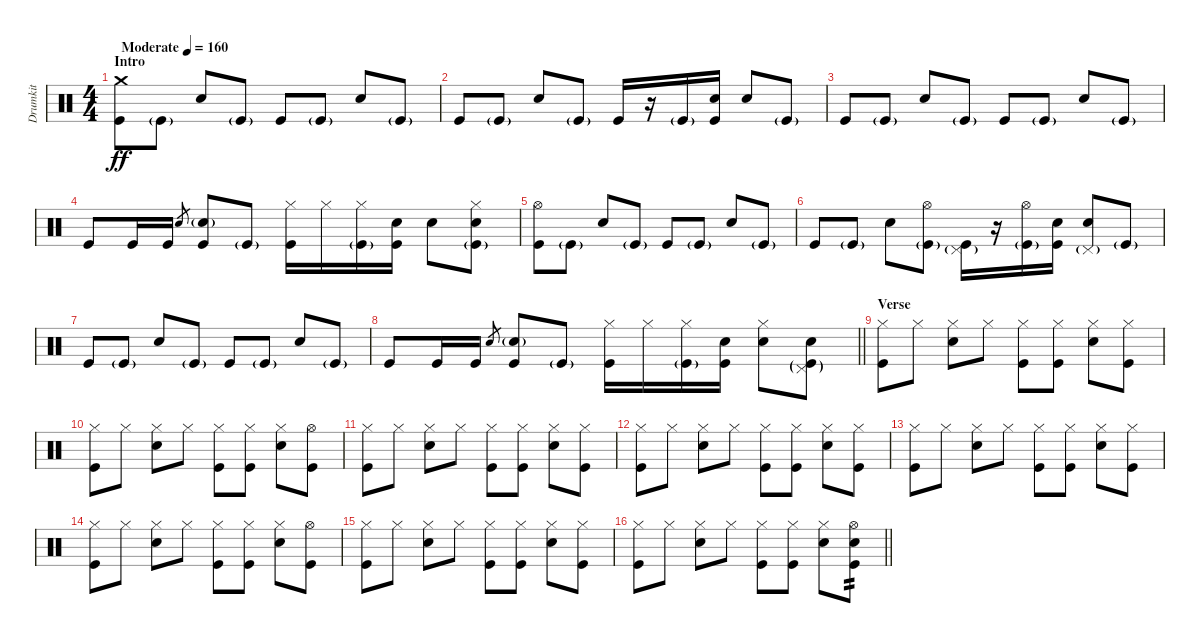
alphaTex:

\track ("Drumkit" "Drumkit") {instrument percussion}
\staff {score}
\articulation defaults
\ts (4 4)
\section ("" "Intro")
\tempo (160 "Moderate")
\clef neutral
\ks c
("Crash medium (hit)" "Kick (hit)").8{dy ff} "Kick (hit)"{g}.8 "Snare (hit) 2".8 "Kick (hit)"{g}.8 "Kick (hit)".8 "Kick (hit)"{g}.8 "Snare (hit) 2".8 "Kick (hit)"{g}.8 |
"Kick (hit)".8 "Kick (hit)"{g}.8 "Snare (hit) 2".8 "Kick (hit)"{g}.8 "Kick (hit)".16 r.16 "Kick (hit)"{g}.16 ("Snare (hit) 2" "Kick (hit)").16 "Snare (hit) 2".8 "Kick (hit)"{g}.8 |
"Kick (hit)".8 "Kick (hit)"{g}.8 "Snare (hit) 2".8 "Kick (hit)"{g}.8 "Kick (hit)".8 "Kick (hit)"{g}.8 "Snare (hit) 2".8 "Kick (hit)"{g}.8 |
"Kick (hit)".8 "Kick (hit)".16 "Kick (hit)".16 "Snare (hit)".8{gr} ("Snare (hit) 2"{g} "Kick (hit)").8 "Kick (hit)"{g}.8 ("Hi-Hat (closed)" "Kick (hit)").16 "Hi-Hat (closed)".16 ("Hi-Hat (closed)" "Kick (hit)"{g}).16 ("Snare (hit) 2" "Kick (hit)").16 "Snare (hit) 2".8 ("Hi-Hat (closed)" "Snare (hit) 2" "Kick (hit)"{g}).8 |
("Hi-Hat (open)" "Kick (hit)").8 "Kick (hit)"{g}.8 "Snare (hit) 2".8 "Kick (hit)"{g}.8 "Kick (hit)".8 "Kick (hit)"{g}.8 "Snare (hit) 2".8 "Kick (hit)"{g}.8 |
"Kick (hit)".8 "Kick (hit)"{g}.8 "Snare (hit) 2".8 ("Hi-Hat (open)" "Kick (hit)"{g}).8 ("Pedal Hi-Hat (hit)"{g} "Kick (hit)").16 r.16 ("Hi-Hat (open)" "Kick (hit)"{g}).16 ("Snare (hit) 2" "Kick (hit)").16 ("Pedal Hi-Hat (hit)"{g} "Snare (hit) 2").8 "Kick (hit)"{g}.8 |
"Kick (hit)".8 "Kick (hit)"{g}.8 "Snare (hit) 2".8 "Kick (hit)"{g}.8 "Kick (hit)".8 "Kick (hit)"{g}.8 "Snare (hit) 2".8 "Kick (hit)"{g}.8 |
\barLineRight lightlight "Kick (hit)".8 "Kick (hit)".16 "Kick (hit)".16 "Snare (hit)".8{gr}
("Snare (hit) 2"{g} "Kick (hit)").8 "Kick (hit)"{g}.8 ("Hi-Hat (closed)" "Kick (hit)").16 "Hi-Hat (closed)".16 ("Hi-Hat (closed)" "Kick (hit)"{g}).16 ("Snare (hit) 2" "Kick (hit)").16 ("Hi-Hat (closed)" "Snare (hit) 2").8 ("Pedal Hi-Hat (hit)"{g} "Snare (hit) 2" "Kick (hit)"{g}).8 |
\section ("" "Verse")
("Hi-Hat (closed)" "Kick (hit)").8 "Hi-Hat (closed)".8 ("Hi-Hat (closed)" "Snare (hit) 2").8 "Hi-Hat (closed)".8 ("Hi-Hat (closed)" "Kick (hit)").8 ("Hi-Hat (closed)" "Kick (hit)").8 ("Hi-Hat (closed)" "Snare (hit) 2").8 ("Hi-Hat (closed)" "Kick (hit)").8 |
("Hi-Hat (closed)" "Kick (hit)").8 "Hi-Hat (closed)".8 ("Hi-Hat (closed)" "Snare (hit) 2").8 "Hi-Hat (closed)".8 ("Hi-Hat (closed)" "Kick (hit)").8 ("Hi-Hat (closed)" "Kick (hit)").8 ("Hi-Hat (closed)" "Snare (hit) 2").8 ("Hi-Hat (open)" "Kick (hit)").8 |
("Hi-Hat (closed)" "Kick (hit)").8 "Hi-Hat (closed)".8 ("Hi-Hat (closed)" "Snare (hit) 2").8 "Hi-Hat (closed)".8 ("Hi-Hat (closed)" "Kick (hit)").8 ("Hi-Hat (closed)" "Kick (hit)").8 ("Hi-Hat (closed)" "Snare (hit) 2").8 ("Hi-Hat (closed)" "Kick (hit)").8 |
("Hi-Hat (closed)" "Kick (hit)").8 "Hi-Hat (closed)".8 ("Hi-Hat (closed)" "Snare (hit) 2").8 "Hi-Hat (closed)".8 ("Hi-Hat (closed)" "Kick (hit)").8 ("Hi-Hat (closed)" "Kick (hit)").8 ("Hi-Hat (closed)" "Snare (hit) 2").8 ("Hi-Hat (closed)" "Kick (hit)").8 |
("Hi-Hat (closed)" "Kick (hit)").8 "Hi-Hat (closed)".8 ("Hi-Hat (closed)" "Snare (hit) 2").8 "Hi-Hat (closed)".8 ("Hi-Hat (closed)" "Kick (hit)").8 ("Hi-Hat (closed)" "Kick (hit)").8 ("Hi-Hat (closed)" "Snare (hit) 2").8 ("Hi-Hat (closed)" "Kick (hit)").8 |
("Hi-Hat (closed)" "Kick (hit)").8 "Hi-Hat (closed)".8 ("Hi-Hat (closed)" "Snare (hit) 2").8 "Hi-Hat (closed)".8 ("Hi-Hat (closed)" "Kick (hit)").8 ("Hi-Hat (closed)" "Kick (hit)").8 ("Hi-Hat (closed)" "Snare (hit) 2").8 ("Hi-Hat (open)" "Kick (hit)").8 |
("Hi-Hat (closed)" "Kick (hit)").8 "Hi-Hat (closed)".8 ("Hi-Hat (closed)" "Snare (hit) 2").8 "Hi-Hat (closed)".8 ("Hi-Hat (closed)" "Kick (hit)").8 ("Hi-Hat (closed)" "Kick (hit)").8 ("Hi-Hat (closed)" "Snare (hit) 2").8 ("Hi-Hat (closed)" "Kick (hit)").8 |
\barLineRight lightlight
("Hi-Hat (closed)" "Kick (hit)").8 "Hi-Hat (closed)".8 ("Hi-Hat (closed)" "Snare (hit) 2").8 "Hi-Hat (closed)".8 ("Hi-Hat (closed)" "Kick (hit)").8 ("Hi-Hat (closed)" "Kick (hit)").8 ("Hi-Hat (closed)" "Snare (hit) 2").8 ("Hi-Hat (open)" "Snare (hit) 2" "Kick (hit)").8{tp 2}
